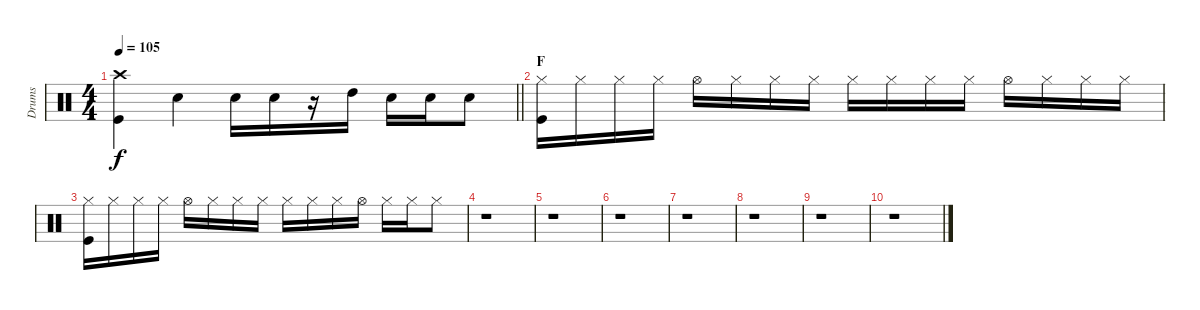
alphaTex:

\track ("Drums" "Drums") {instrument percussion}
\staff {score}
\articulation defaults
\ts (4 4)
\tempo 105
\clef neutral
\barLineRight lightlight
\ks c
("Crash high (hit)" "Kick (hit)").4{dy f} "Electric Snare (hit)".4 "Electric Snare (hit)".16 "Electric Snare (hit)".16 r.16 "High Tom (hit)".16 "Electric Snare (hit)".16 "Electric Snare (hit)".16 "Electric Snare (hit)".8 |
\section ("" "F")
("Hi-Hat (closed)" "Kick (hit)").16 "Hi-Hat (closed)".16 "Hi-Hat (closed)".16 "Hi-Hat (closed)".16 "Hi-Hat (open)".16 "Hi-Hat (closed)".16 "Hi-Hat (closed)".16 "Hi-Hat (closed)".16 "Hi-Hat (closed)".16 "Hi-Hat (closed)".16 "Hi-Hat (closed)".16 "Hi-Hat (closed)".16 "Hi-Hat (open)".16 "Hi-Hat (closed)".16 "Hi-Hat (closed)".16 "Hi-Hat (closed)".16 |
("Hi-Hat (closed)" "Kick (hit)").16 "Hi-Hat (closed)".16 "Hi-Hat (closed)".16 "Hi-Hat (closed)".16 "Hi-Hat (open)".16 "Hi-Hat (closed)".16 "Hi-Hat (closed)".16 "Hi-Hat (closed)".16 "Hi-Hat (closed)".16 "Hi-Hat (closed)".16 "Hi-Hat (closed)".16 "Hi-Hat (open)".16 "Hi-Hat (closed)".16 "Hi-Hat (closed)".16 "Hi-Hat (closed)".8 |
r.1 |
r.1 |
r.1 |
r.1 |
r.1 |
r.1 |
r.1
